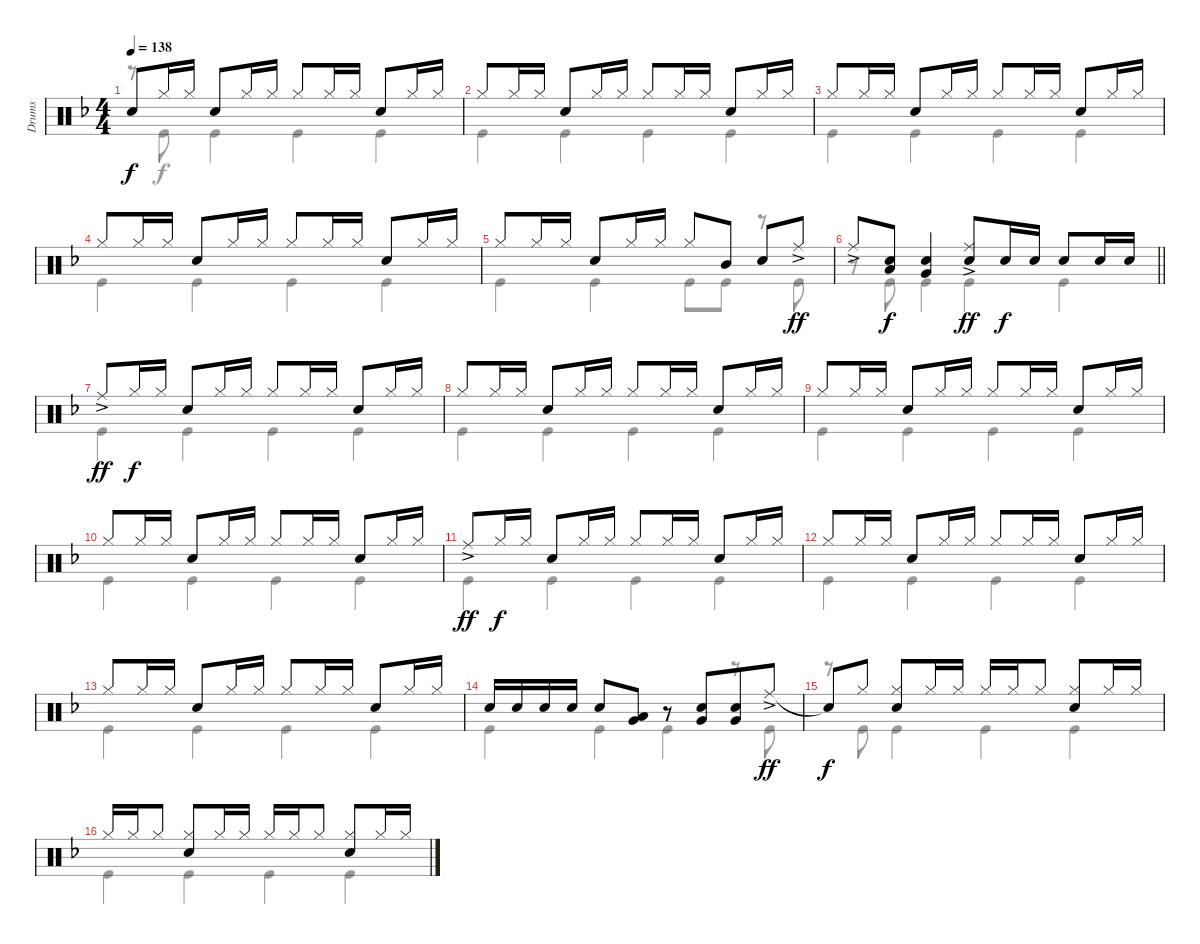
\track ("Drums" "Drums") {instrument percussion}
\staff {score}
\articulation defaults
\voice
\ts (4 4)
\tempo 138
\clef neutral
\ks f "Snare (hit)"{t}.8{dy f} "Hi-Hat (closed)".16 "Hi-Hat (closed)".16 "Snare (hit) 2".8 "Hi-Hat (closed)".16 "Hi-Hat (closed)".16 "Hi-Hat (closed)".8 "Hi-Hat (closed)".16 "Hi-Hat (closed)".16 "Snare (hit) 2".8 "Hi-Hat (closed)".16 "Hi-Hat (closed)".16
|
"Hi-Hat (closed)".8 "Hi-Hat (closed)".16 "Hi-Hat (closed)".16 "Snare (hit) 2".8 "Hi-Hat (closed)".16 "Hi-Hat (closed)".16 "Hi-Hat (closed)".8 "Hi-Hat (closed)".16 "Hi-Hat (closed)".16 "Snare (hit) 2".8 "Hi-Hat (closed)".16 "Hi-Hat (closed)".16 |
"Hi-Hat (closed)".8 "Hi-Hat (closed)".16 "Hi-Hat (closed)".16 "Snare (hit) 2".8 "Hi-Hat (closed)".16 "Hi-Hat (closed)".16 "Hi-Hat (closed)".8 "Hi-Hat (closed)".16 "Hi-Hat (closed)".16 "Snare (hit) 2".8 "Hi-Hat (closed)".16 "Hi-Hat (closed)".16 |
"Hi-Hat (closed)".8 "Hi-Hat (closed)".16 "Hi-Hat (closed)".16 "Snare (hit) 2".8 "Hi-Hat (closed)".16 "Hi-Hat (closed)".16 "Hi-Hat (closed)".8 "Hi-Hat (closed)".16 "Hi-Hat (closed)".16 "Snare (hit) 2".8 "Hi-Hat (closed)".16 "Hi-Hat (closed)".16 |
"Hi-Hat (closed)".8 "Hi-Hat (closed)".16 "Hi-Hat (closed)".16 "Snare (hit) 2".8 "Hi-Hat (closed)".16 "Hi-Hat (closed)".16 "Hi-Hat (closed)".8 "Mid Tom (hit)".8 "Snare (hit) 2".8 "Ride (middle)"{ac}.8{dy ff} |
\barLineRight lightlight "Ride (middle)"{ac}.8
("Snare (hit) 2" "Low Tom (hit)").8{dy f} ("Snare (hit) 2" "Very Low Tom (hit)").4 ("Ride (middle)"{ac} "Snare (hit) 2").8{dy ff} "Snare (hit) 2".16{dy f} "Snare (hit) 2".16 "Snare (hit) 2".8 "Snare (hit) 2".16 "Snare (hit) 2".16 |
"Ride (middle)"{ac}.8{dy ff} "Hi-Hat (closed)".16{dy f} "Hi-Hat (closed)".16 "Snare (hit) 2".8 "Hi-Hat (closed)".16 "Hi-Hat (closed)".16 "Hi-Hat (closed)".8 "Hi-Hat (closed)".16 "Hi-Hat (closed)".16 "Snare (hit) 2".8 "Hi-Hat (closed)".16 "Hi-Hat (closed)".16 |
"Hi-Hat (closed)".8 "Hi-Hat (closed)".16 "Hi-Hat (closed)".16 "Snare (hit) 2".8 "Hi-Hat (closed)".16 "Hi-Hat (closed)".16 "Hi-Hat (closed)".8 "Hi-Hat (closed)".16 "Hi-Hat (closed)".16 "Snare (hit) 2".8 "Hi-Hat (closed)".16 "Hi-Hat (closed)".16 |
"Hi-Hat (closed)".8 "Hi-Hat (closed)".16 "Hi-Hat (closed)".16 "Snare (hit) 2".8 "Hi-Hat (closed)".16 "Hi-Hat (closed)".16 "Hi-Hat (closed)".8 "Hi-Hat (closed)".16 "Hi-Hat (closed)".16 "Snare (hit) 2".8 "Hi-Hat (closed)".16 "Hi-Hat (closed)".16 |
"Hi-Hat (closed)".8 "Hi-Hat (closed)".16 "Hi-Hat (closed)".16 "Snare (hit) 2".8 "Hi-Hat (closed)".16 "Hi-Hat (closed)".16 "Hi-Hat (closed)".8 "Hi-Hat (closed)".16 "Hi-Hat (closed)".16 "Snare (hit) 2".8 "Hi-Hat (closed)".16 "Hi-Hat (closed)".16 |
"Ride (middle)"{ac}.8{dy ff} "Hi-Hat (closed)".16{dy f} "Hi-Hat (closed)".16 "Snare (hit) 2".8 "Hi-Hat (closed)".16 "Hi-Hat (closed)".16 "Hi-Hat (closed)".8 "Hi-Hat (closed)".16 "Hi-Hat (closed)".16 "Snare (hit) 2".8 "Hi-Hat (closed)".16 "Hi-Hat (closed)".16 |
"Hi-Hat (closed)".8 "Hi-Hat (closed)".16 "Hi-Hat (closed)".16 "Snare (hit) 2".8 "Hi-Hat (closed)".16 "Hi-Hat (closed)".16 "Hi-Hat (closed)".8 "Hi-Hat (closed)".16 "Hi-Hat (closed)".16 "Snare (hit) 2".8 "Hi-Hat (closed)".16 "Hi-Hat (closed)".16 |
"Hi-Hat (closed)".8 "Hi-Hat (closed)".16 "Hi-Hat (closed)".16 "Snare (hit) 2".8 "Hi-Hat (closed)".16 "Hi-Hat (closed)".16 "Hi-Hat (closed)".8 "Hi-Hat (closed)".16 "Hi-Hat (closed)".16 "Snare (hit) 2".8 "Hi-Hat (closed)".16 "Hi-Hat (closed)".16 |
"Snare (hit) 2".16 "Snare (hit) 2".16 "Snare (hit) 2".16 "Snare (hit) 2".16 "Snare (hit) 2".8 ("Low Tom (hit)" "Very Low Tom (hit)").8 r.8 ("Snare (hit) 2" "Very Low Tom (hit)").8{beam merge} ("Snare (hit) 2" "Very Low Tom (hit)").8 "Ride (middle)"{ac}.8{dy ff} |
"Snare (hit)"{t}.8{dy f} "Hi-Hat (closed)".8 ("Hi-Hat (closed)" "Snare (hit) 2").8 "Hi-Hat (closed)".16 "Hi-Hat (closed)".16 "Hi-Hat (closed)".16 "Hi-Hat (closed)".16 "Hi-Hat (closed)".8 ("Hi-Hat (closed)" "Snare (hit) 2").8 "Hi-Hat (closed)".16 "Hi-Hat (closed)".16 |
"Hi-Hat (closed)".16 "Hi-Hat (closed)".16 "Hi-Hat (closed)".8 ("Hi-Hat (closed)" "Snare (hit) 2").8 "Hi-Hat (closed)".16 "Hi-Hat (closed)".16 "Hi-Hat (closed)".16 "Hi-Hat (closed)".16 "Hi-Hat (closed)".8 ("Hi-Hat (closed)" "Snare (hit) 2").8 "Hi-Hat (closed)".16 "Hi-Hat (closed)".16
\voice
\clef neutral
\ottava regular
\simile none
\ks f
r.8{dy f} "Kick (hit)".8 "Kick (hit)".4 "Kick (hit)".4 "Kick (hit)".4 |
"Kick (hit)".4 "Kick (hit)".4 "Kick (hit)".4 "Kick (hit)".4 |
"Kick (hit)".4 "Kick (hit)".4 "Kick (hit)".4 "Kick (hit)".4 |
"Kick (hit)".4 "Kick (hit)".4 "Kick (hit)".4 "Kick (hit)".4 |
"Kick (hit)".4 "Kick (hit)".4 "Kick (hit)".8 "Kick (hit)".8 r.8 "Kick (hit)".8 |
\barLineRight lightlight
r.8 "Kick (hit)".8 "Kick (hit)".4 "Kick (hit)".4 "Kick (hit)".4 |
"Kick (hit)".4 "Kick (hit)".4 "Kick (hit)".4 "Kick (hit)".4 |
"Kick (hit)".4 "Kick (hit)".4 "Kick (hit)".4 "Kick (hit)".4 |
"Kick (hit)".4 "Kick (hit)".4 "Kick (hit)".4 "Kick (hit)".4 |
"Kick (hit)".4 "Kick (hit)".4 "Kick (hit)".4 "Kick (hit)".4 |
"Kick (hit)".4 "Kick (hit)".4 "Kick (hit)".4 "Kick (hit)".4 |
"Kick (hit)".4 "Kick (hit)".4 "Kick (hit)".4 "Kick (hit)".4 |
"Kick (hit)".4 "Kick (hit)".4 "Kick (hit)".4 "Kick (hit)".4 |
"Kick (hit)".4 "Kick (hit)".4 "Kick (hit)".4 r.8 "Kick (hit)".8 |
r.8 "Kick (hit)".8 "Kick (hit)".4 "Kick (hit)".4 "Kick (hit)".4 |
"Kick (hit)".4 "Kick (hit)".4 "Kick (hit)".4 "Kick (hit)".4
